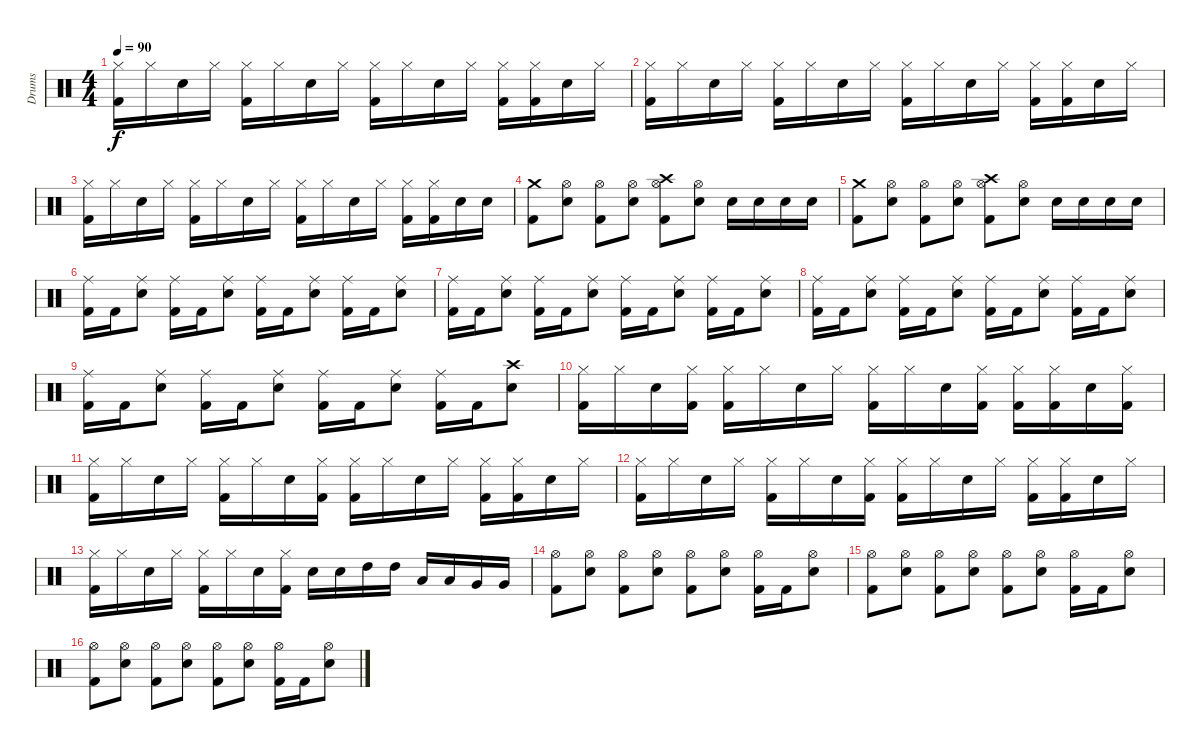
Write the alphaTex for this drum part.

\track ("Drums" "Drums") {instrument percussion}
\staff {score}
\articulation defaults
\ts (4 4)
\tempo 90
\clef neutral
\ks c
("Hi-Hat (closed)" "Kick (hit) 2").16{dy f} "Hi-Hat (closed)".16 "Electric Snare (hit)".16 "Hi-Hat (closed)".16 ("Hi-Hat (closed)" "Kick (hit) 2").16 "Hi-Hat (closed)".16 "Electric Snare (hit)".16 "Hi-Hat (closed)".16 ("Hi-Hat (closed)" "Kick (hit) 2").16 "Hi-Hat (closed)".16 "Electric Snare (hit)".16 "Hi-Hat (closed)".16 ("Hi-Hat (closed)" "Kick (hit) 2").16 ("Hi-Hat (closed)" "Kick (hit) 2").16 "Electric Snare (hit)".16 "Hi-Hat (closed)".16 |
("Hi-Hat (closed)" "Kick (hit) 2").16 "Hi-Hat (closed)".16 "Electric Snare (hit)".16 "Hi-Hat (closed)".16 ("Hi-Hat (closed)" "Kick (hit) 2").16 "Hi-Hat (closed)".16 "Electric Snare (hit)".16 "Hi-Hat (closed)".16 ("Hi-Hat (closed)" "Kick (hit) 2").16 "Hi-Hat (closed)".16 "Electric Snare (hit)".16 "Hi-Hat (closed)".16 ("Hi-Hat (closed)" "Kick (hit) 2").16 ("Hi-Hat (closed)" "Kick (hit) 2").16 "Electric Snare (hit)".16 "Hi-Hat (closed)".16 |
("Hi-Hat (closed)" "Kick (hit) 2").16 "Hi-Hat (closed)".16 "Electric Snare (hit)".16 "Hi-Hat (closed)".16 ("Hi-Hat (closed)" "Kick (hit) 2").16 "Hi-Hat (closed)".16 "Electric Snare (hit)".16 "Hi-Hat (closed)".16 ("Hi-Hat (closed)" "Kick (hit) 2").16 "Hi-Hat (closed)".16 "Electric Snare (hit)".16 "Hi-Hat (closed)".16 ("Hi-Hat (closed)" "Kick (hit) 2").16 ("Hi-Hat (closed)" "Kick (hit) 2").16 "Electric Snare (hit)".16 "Electric Snare (hit)".16 |
("Crash medium (hit)" "Kick (hit) 2").8 ("Hi-Hat (open)" "Electric Snare (hit)").8 ("Hi-Hat (open)" "Kick (hit) 2").8 ("Hi-Hat (open)" "Electric Snare (hit)").8 ("Crash high (hit)" "Hi-Hat (open)" "Kick (hit) 2").8 ("Hi-Hat (open)" "Electric Snare (hit)").8 "Electric Snare (hit)".16 "Electric Snare (hit)".16 "Electric Snare (hit)".16 "Electric Snare (hit)".16 |
("Crash medium (hit)" "Kick (hit) 2").8 ("Hi-Hat (open)" "Electric Snare (hit)").8 ("Hi-Hat (open)" "Kick (hit) 2").8 ("Hi-Hat (open)" "Electric Snare (hit)").8 ("Crash high (hit)" "Hi-Hat (open)" "Kick (hit) 2").8 ("Hi-Hat (open)" "Electric Snare (hit)").8 "Electric Snare (hit)".16 "Electric Snare (hit)".16 "Electric Snare (hit)".16 "Electric Snare (hit)".16 |
("Ride (middle)" "Kick (hit) 2").16 "Kick (hit) 2".16 ("Ride (middle)" "Electric Snare (hit)").8 ("Ride (middle)" "Kick (hit) 2").16 "Kick (hit) 2".16 ("Ride (middle)" "Electric Snare (hit)").8 ("Ride (middle)" "Kick (hit) 2").16 "Kick (hit) 2".16 ("Ride (middle)" "Electric Snare (hit)").8 ("Ride (middle)" "Kick (hit) 2").16 "Kick (hit) 2".16 ("Ride (middle)" "Electric Snare (hit)").8 |
("Ride (middle)" "Kick (hit) 2").16 "Kick (hit) 2".16 ("Ride (middle)" "Electric Snare (hit)").8 ("Ride (middle)" "Kick (hit) 2").16 "Kick (hit) 2".16 ("Ride (middle)" "Electric Snare (hit)").8 ("Ride (middle)" "Kick (hit) 2").16 "Kick (hit) 2".16 ("Ride (middle)" "Electric Snare (hit)").8 ("Ride (middle)" "Kick (hit) 2").16 "Kick (hit) 2".16 ("Ride (middle)" "Electric Snare (hit)").8 |
("Ride (middle)" "Kick (hit) 2").16 "Kick (hit) 2".16 ("Ride (middle)" "Electric Snare (hit)").8 ("Ride (middle)" "Kick (hit) 2").16 "Kick (hit) 2".16 ("Ride (middle)" "Electric Snare (hit)").8 ("Ride (middle)" "Kick (hit) 2").16 "Kick (hit) 2".16 ("Ride (middle)" "Electric Snare (hit)").8 ("Ride (middle)" "Kick (hit) 2").16 "Kick (hit) 2".16 ("Ride (middle)" "Electric Snare (hit)").8 |
("Ride (middle)" "Kick (hit) 2").16 "Kick (hit) 2".16 ("Ride (middle)" "Electric Snare (hit)").8 ("Ride (middle)" "Kick (hit) 2").16 "Kick (hit) 2".16 ("Ride (middle)" "Electric Snare (hit)").8 ("Ride (middle)" "Kick (hit) 2").16 "Kick (hit) 2".16 ("Ride (middle)" "Electric Snare (hit)").8 ("Ride (middle)" "Kick (hit) 2").16 "Kick (hit) 2".16 ("Crash high (hit)" "Electric Snare (hit)").8 |
("Hi-Hat (closed)" "Kick (hit) 2").16 "Hi-Hat (closed)".16 "Electric Snare (hit)".16 ("Hi-Hat (closed)" "Kick (hit) 2").16 ("Hi-Hat (closed)" "Kick (hit) 2").16 "Hi-Hat (closed)".16 "Electric Snare (hit)".16 "Hi-Hat (closed)".16 ("Hi-Hat (closed)" "Kick (hit) 2").16 "Hi-Hat (closed)".16 "Electric Snare (hit)".16 ("Hi-Hat (closed)" "Kick (hit) 2").16 ("Hi-Hat (closed)" "Kick (hit) 2").16 ("Hi-Hat (closed)" "Kick (hit) 2").16 "Electric Snare (hit)".16 ("Hi-Hat (closed)" "Kick (hit) 2").16 |
("Hi-Hat (closed)" "Kick (hit) 2").16 "Hi-Hat (closed)".16 "Electric Snare (hit)".16 "Hi-Hat (closed)".16 ("Hi-Hat (closed)" "Kick (hit) 2").16 "Hi-Hat (closed)".16 "Electric Snare (hit)".16 ("Hi-Hat (closed)" "Kick (hit) 2").16 ("Hi-Hat (closed)" "Kick (hit) 2").16 "Hi-Hat (closed)".16 "Electric Snare (hit)".16 "Hi-Hat (closed)".16 ("Hi-Hat (closed)" "Kick (hit) 2").16 ("Hi-Hat (closed)" "Kick (hit) 2").16 "Electric Snare (hit)".16 "Hi-Hat (closed)".16 |
("Hi-Hat (closed)" "Kick (hit) 2").16 "Hi-Hat (closed)".16 "Electric Snare (hit)".16 "Hi-Hat (closed)".16 ("Hi-Hat (closed)" "Kick (hit) 2").16 "Hi-Hat (closed)".16 "Electric Snare (hit)".16 ("Hi-Hat (closed)" "Kick (hit) 2").16 ("Hi-Hat (closed)" "Kick (hit) 2").16 "Hi-Hat (closed)".16 "Electric Snare (hit)".16 "Hi-Hat (closed)".16 ("Hi-Hat (closed)" "Kick (hit) 2").16 ("Hi-Hat (closed)" "Kick (hit) 2").16 "Electric Snare (hit)".16 "Hi-Hat (closed)".16 |
("Hi-Hat (closed)" "Kick (hit) 2").16 "Hi-Hat (closed)".16 "Electric Snare (hit)".16 "Hi-Hat (closed)".16 ("Hi-Hat (closed)" "Kick (hit) 2").16 "Hi-Hat (closed)".16 "Electric Snare (hit)".16 ("Hi-Hat (closed)" "Kick (hit) 2").16 "Electric Snare (hit)".16 "Electric Snare (hit)".16 "High Tom (hit)".16 "High Tom (hit)".16 "Low Tom (hit)".16 "Low Tom (hit)".16 "Very Low Tom (hit)".16 "Very Low Tom (hit)".16 |
("Hi-Hat (open)" "Kick (hit) 2").8 ("Hi-Hat (open)" "Electric Snare (hit)").8 ("Hi-Hat (open)" "Kick (hit) 2").8 ("Hi-Hat (open)" "Electric Snare (hit)").8 ("Hi-Hat (open)" "Kick (hit) 2").8 ("Hi-Hat (open)" "Electric Snare (hit)").8 ("Hi-Hat (open)" "Kick (hit) 2").16 "Kick (hit) 2".16 ("Hi-Hat (open)" "Electric Snare (hit)").8 |
("Hi-Hat (open)" "Kick (hit) 2").8 ("Hi-Hat (open)" "Electric Snare (hit)").8 ("Hi-Hat (open)" "Kick (hit) 2").8 ("Hi-Hat (open)" "Electric Snare (hit)").8 ("Hi-Hat (open)" "Kick (hit) 2").8 ("Hi-Hat (open)" "Electric Snare (hit)").8 ("Hi-Hat (open)" "Kick (hit) 2").16 "Kick (hit) 2".16 ("Hi-Hat (open)" "Electric Snare (hit)").8 |
("Hi-Hat (open)" "Kick (hit) 2").8 ("Hi-Hat (open)" "Electric Snare (hit)").8 ("Hi-Hat (open)" "Kick (hit) 2").8 ("Hi-Hat (open)" "Electric Snare (hit)").8 ("Hi-Hat (open)" "Kick (hit) 2").8 ("Hi-Hat (open)" "Electric Snare (hit)").8 ("Hi-Hat (open)" "Kick (hit) 2").16 "Kick (hit) 2".16 ("Hi-Hat (open)" "Snare (hit) 2").8
